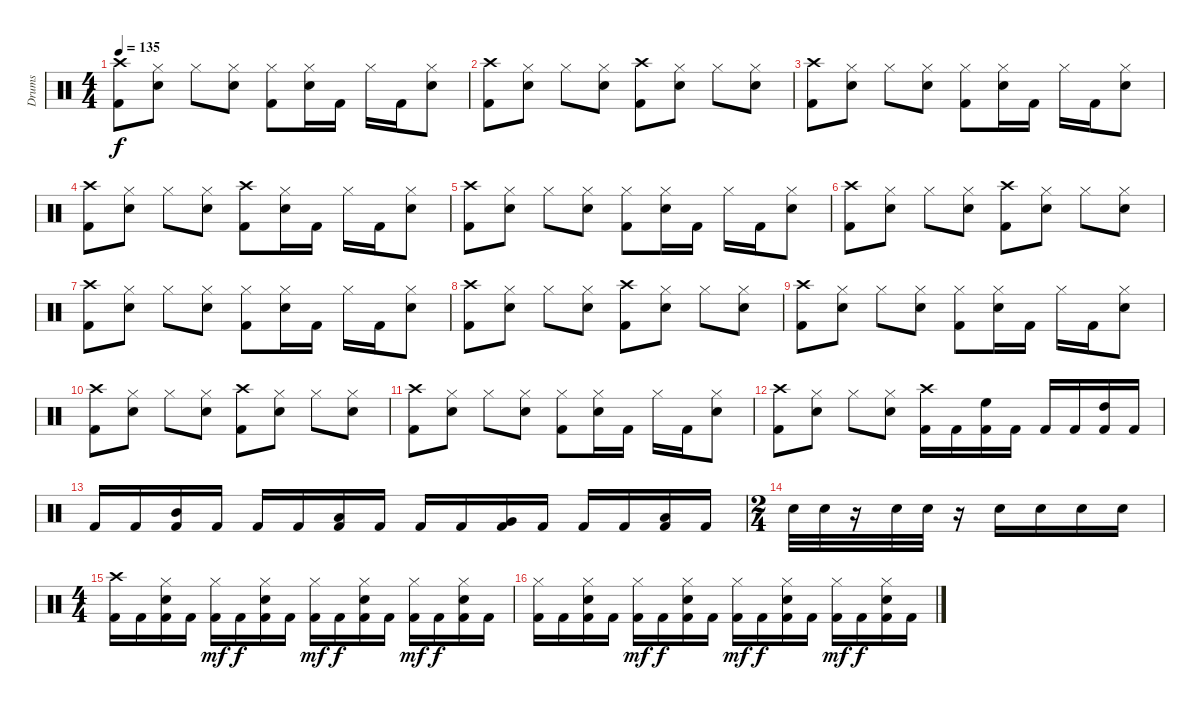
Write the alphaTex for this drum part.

\track ("Drums" "Drums") {instrument percussion}
\staff {score}
\articulation defaults
\ts (4 4)
\tempo 135
\clef neutral
\ks c
("Crash high (hit)" "Kick (hit) 2").8{dy f} ("Hi-Hat (closed)" "Snare (hit) 2").8 "Hi-Hat (closed)".8 ("Hi-Hat (closed)" "Snare (hit) 2").8 ("Hi-Hat (closed)" "Kick (hit) 2").8 ("Hi-Hat (closed)" "Snare (hit) 2").16 "Kick (hit) 2".16 "Hi-Hat (closed)".16 "Kick (hit) 2".16 ("Hi-Hat (closed)" "Snare (hit) 2").8 |
("Crash high (hit)" "Kick (hit) 2").8 ("Hi-Hat (closed)" "Snare (hit) 2").8 "Hi-Hat (closed)".8 ("Hi-Hat (closed)" "Snare (hit) 2").8 ("Crash high (hit)" "Kick (hit) 2").8 ("Hi-Hat (closed)" "Snare (hit) 2").8 "Hi-Hat (closed)".8 ("Hi-Hat (closed)" "Snare (hit) 2").8 |
("Crash high (hit)" "Kick (hit) 2").8 ("Hi-Hat (closed)" "Snare (hit) 2").8 "Hi-Hat (closed)".8 ("Hi-Hat (closed)" "Snare (hit) 2").8 ("Hi-Hat (closed)" "Kick (hit) 2").8 ("Hi-Hat (closed)" "Snare (hit) 2").16 "Kick (hit) 2".16 "Hi-Hat (closed)".16 "Kick (hit) 2".16 ("Hi-Hat (closed)" "Snare (hit) 2").8 |
("Crash high (hit)" "Kick (hit) 2").8 ("Hi-Hat (closed)" "Snare (hit) 2").8 "Hi-Hat (closed)".8 ("Hi-Hat (closed)" "Snare (hit) 2").8 ("Crash high (hit)" "Kick (hit) 2").8 ("Hi-Hat (closed)" "Snare (hit) 2").16 "Kick (hit) 2".16 "Hi-Hat (closed)".16 "Kick (hit) 2".16 ("Hi-Hat (closed)" "Snare (hit) 2").8 |
("Crash high (hit)" "Kick (hit) 2").8 ("Hi-Hat (closed)" "Snare (hit) 2").8 "Hi-Hat (closed)".8 ("Hi-Hat (closed)" "Snare (hit) 2").8 ("Hi-Hat (closed)" "Kick (hit) 2").8 ("Hi-Hat (closed)" "Snare (hit) 2").16 "Kick (hit) 2".16 "Hi-Hat (closed)".16 "Kick (hit) 2".16 ("Hi-Hat (closed)" "Snare (hit) 2").8 |
("Crash high (hit)" "Kick (hit) 2").8 ("Hi-Hat (closed)" "Snare (hit) 2").8 "Hi-Hat (closed)".8 ("Hi-Hat (closed)" "Snare (hit) 2").8 ("Crash high (hit)" "Kick (hit) 2").8 ("Hi-Hat (closed)" "Snare (hit) 2").8 "Hi-Hat (closed)".8 ("Hi-Hat (closed)" "Snare (hit) 2").8 |
("Crash high (hit)" "Kick (hit) 2").8 ("Hi-Hat (closed)" "Snare (hit) 2").8 "Hi-Hat (closed)".8 ("Hi-Hat (closed)" "Snare (hit) 2").8 ("Hi-Hat (closed)" "Kick (hit) 2").8 ("Hi-Hat (closed)" "Snare (hit) 2").16 "Kick (hit) 2".16 "Hi-Hat (closed)".16 "Kick (hit) 2".16 ("Hi-Hat (closed)" "Snare (hit) 2").8 |
("Crash high (hit)" "Kick (hit) 2").8 ("Hi-Hat (closed)" "Snare (hit) 2").8 "Hi-Hat (closed)".8 ("Hi-Hat (closed)" "Snare (hit) 2").8 ("Crash high (hit)" "Kick (hit) 2").8 ("Hi-Hat (closed)" "Snare (hit) 2").8 "Hi-Hat (closed)".8 ("Hi-Hat (closed)" "Snare (hit) 2").8 |
("Crash high (hit)" "Kick (hit) 2").8 ("Hi-Hat (closed)" "Snare (hit) 2").8 "Hi-Hat (closed)".8 ("Hi-Hat (closed)" "Snare (hit) 2").8 ("Hi-Hat (closed)" "Kick (hit) 2").8 ("Hi-Hat (closed)" "Snare (hit) 2").16 "Kick (hit) 2".16 "Hi-Hat (closed)".16 "Kick (hit) 2".16 ("Hi-Hat (closed)" "Snare (hit) 2").8 |
("Crash high (hit)" "Kick (hit) 2").8 ("Hi-Hat (closed)" "Snare (hit) 2").8 "Hi-Hat (closed)".8 ("Hi-Hat (closed)" "Snare (hit) 2").8 ("Crash high (hit)" "Kick (hit) 2").8 ("Hi-Hat (closed)" "Snare (hit) 2").8 "Hi-Hat (closed)".8 ("Hi-Hat (closed)" "Snare (hit) 2").8 |
("Crash high (hit)" "Kick (hit) 2").8 ("Hi-Hat (closed)" "Snare (hit) 2").8 "Hi-Hat (closed)".8 ("Hi-Hat (closed)" "Snare (hit) 2").8 ("Hi-Hat (closed)" "Kick (hit) 2").8 ("Hi-Hat (closed)" "Snare (hit) 2").16 "Kick (hit) 2".16 "Hi-Hat (closed)".16 "Kick (hit) 2".16 ("Hi-Hat (closed)" "Snare (hit) 2").8 |
("Crash high (hit)" "Kick (hit) 2").8 ("Hi-Hat (closed)" "Snare (hit) 2").8 "Hi-Hat (closed)".8 ("Hi-Hat (closed)" "Snare (hit) 2").8 ("Crash high (hit)" "Kick (hit) 2").16 "Kick (hit) 2".16 ("High Floor Tom (hit)" "Kick (hit) 2").16 "Kick (hit) 2".16 "Kick (hit) 2".16 "Kick (hit) 2".16 ("High Tom (hit)" "Kick (hit) 2").16 "Kick (hit) 2".16 |
"Kick (hit) 2".16 "Kick (hit) 2".16 ("Mid Tom (hit)" "Kick (hit) 2").16 "Kick (hit) 2".16 "Kick (hit) 2".16 "Kick (hit) 2".16 ("Low Tom (hit)" "Kick (hit) 2").16 "Kick (hit) 2".16 "Kick (hit) 2".16 "Kick (hit) 2".16 ("Very Low Tom (hit)" "Kick (hit) 2").16 "Kick (hit) 2".16 "Kick (hit) 2".16 "Kick (hit) 2".16 ("Low Floor Tom (hit)" "Kick (hit) 2").16 "Kick (hit) 2".16 |
\ts (2 4)
"Snare (hit) 2".32 "Snare (hit) 2".32 r.16 "Snare (hit) 2".32 "Snare (hit) 2".32 r.16 "Snare (hit) 2".16 "Snare (hit) 2".16 "Snare (hit) 2".16 "Snare (hit) 2".16 |
\ts (4 4)
("Crash high (hit)" "Kick (hit) 2").16 "Kick (hit) 2".16 ("Hi-Hat (closed)" "Snare (hit) 2" "Kick (hit) 2").16 "Kick (hit) 2".16 ("Hi-Hat (closed)" "Kick (hit) 2").16{dy mf} "Kick (hit) 2".16{dy f} ("Hi-Hat (closed)" "Snare (hit) 2" "Kick (hit) 2").16 "Kick (hit) 2".16 ("Hi-Hat (closed)" "Kick (hit) 2").16{dy mf} "Kick (hit) 2".16{dy f} ("Hi-Hat (closed)" "Snare (hit) 2" "Kick (hit) 2").16 "Kick (hit) 2".16 ("Hi-Hat (closed)" "Kick (hit) 2").16{dy mf} "Kick (hit) 2".16{dy f} ("Hi-Hat (closed)" "Snare (hit) 2" "Kick (hit) 2").16 "Kick (hit) 2".16 |
("Hi-Hat (closed)" "Kick (hit) 2").16 "Kick (hit) 2".16 ("Hi-Hat (closed)" "Snare (hit) 2" "Kick (hit) 2").16 "Kick (hit) 2".16 ("Hi-Hat (closed)" "Kick (hit) 2").16{dy mf} "Kick (hit) 2".16{dy f} ("Hi-Hat (closed)" "Snare (hit) 2" "Kick (hit) 2").16 "Kick (hit) 2".16 ("Hi-Hat (closed)" "Kick (hit) 2").16{dy mf} "Kick (hit) 2".16{dy f} ("Hi-Hat (closed)" "Snare (hit) 2" "Kick (hit) 2").16 "Kick (hit) 2".16 ("Hi-Hat (closed)" "Kick (hit) 2").16{dy mf} "Kick (hit) 2".16{dy f} ("Hi-Hat (closed)" "Snare (hit) 2" "Kick (hit) 2").16 "Kick (hit) 2".16
